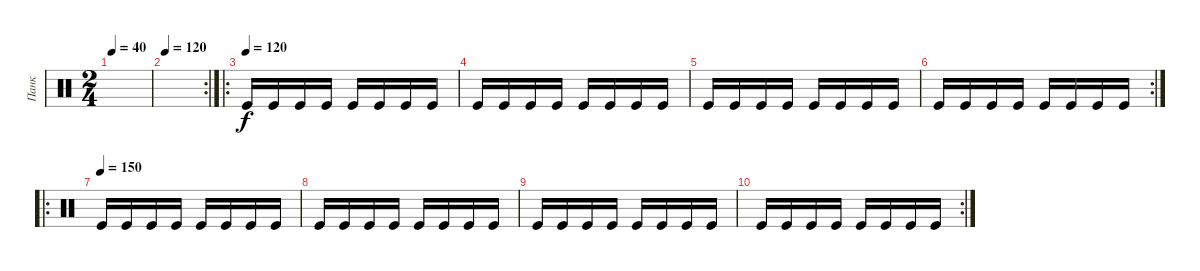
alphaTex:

\track ("Панк" "Панк") {instrument percussion}
\staff {score}
\articulation defaults
\ts (2 4)
\tempo 40
\clef neutral
\ks c
|
\rc 2
\tempo 120
|
\ro
\tempo (120)
"Kick (hit)".16 "Kick (hit)".16 "Kick (hit)".16 "Kick (hit)".16 "Kick (hit)".16 "Kick (hit)".16 "Kick (hit)".16 "Kick (hit)".16 |
"Kick (hit)".16 "Kick (hit)".16 "Kick (hit)".16 "Kick (hit)".16 "Kick (hit)".16 "Kick (hit)".16 "Kick (hit)".16 "Kick (hit)".16 |
"Kick (hit)".16 "Kick (hit)".16 "Kick (hit)".16 "Kick (hit)".16 "Kick (hit)".16 "Kick (hit)".16 "Kick (hit)".16 "Kick (hit)".16 |
\rc 2 "Kick (hit)".16 "Kick (hit)".16 "Kick (hit)".16 "Kick (hit)".16 "Kick (hit)".16 "Kick (hit)".16 "Kick (hit)".16 "Kick (hit)".16
|
\ro
\tempo (150)
"Kick (hit)".16 "Kick (hit)".16 "Kick (hit)".16 "Kick (hit)".16 "Kick (hit)".16 "Kick (hit)".16 "Kick (hit)".16 "Kick (hit)".16 |
"Kick (hit)".16 "Kick (hit)".16 "Kick (hit)".16 "Kick (hit)".16 "Kick (hit)".16 "Kick (hit)".16 "Kick (hit)".16 "Kick (hit)".16 |
"Kick (hit)".16 "Kick (hit)".16 "Kick (hit)".16 "Kick (hit)".16 "Kick (hit)".16 "Kick (hit)".16 "Kick (hit)".16 "Kick (hit)".16 |
\rc 2 "Kick (hit)".16 "Kick (hit)".16 "Kick (hit)".16 "Kick (hit)".16 "Kick (hit)".16 "Kick (hit)".16 "Kick (hit)".16 "Kick (hit)".16
